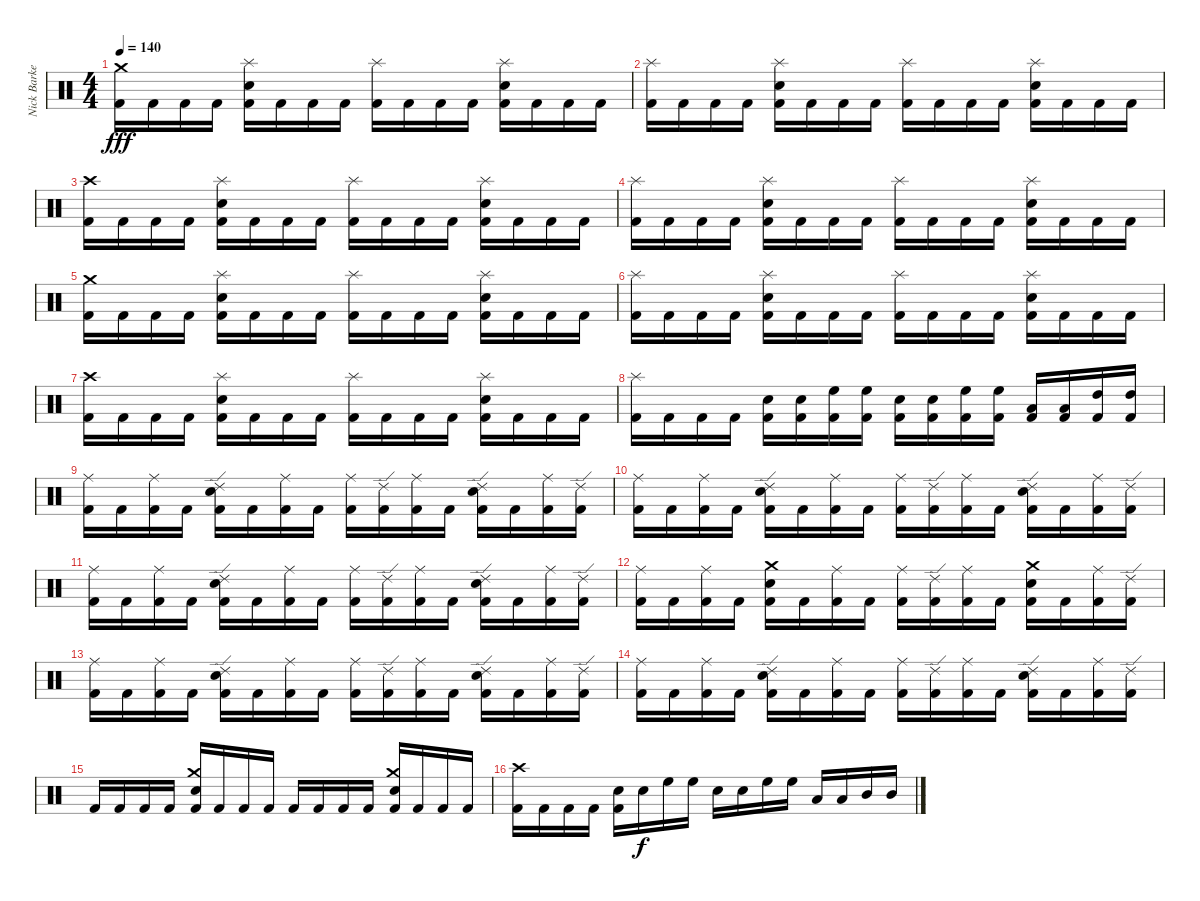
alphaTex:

\track ("Nick Barker - Drums - Percussion" "Nick Barke") {instrument percussion}
\staff {score}
\articulation defaults
\ts (4 4)
\tempo 140
\clef neutral
\ks c
("Kick (hit) 2" "Crash medium (hit)").16{dy fff} "Kick (hit) 2".16 "Kick (hit) 2".16 "Kick (hit) 2".16 ("Kick (hit) 2" "Snare (hit) 2" "Splash (hit)").16 "Kick (hit) 2".16 "Kick (hit) 2".16 "Kick (hit) 2".16 ("Kick (hit) 2" "Splash (hit)").16 "Kick (hit) 2".16 "Kick (hit) 2".16 "Kick (hit) 2".16 ("Kick (hit) 2" "Snare (hit) 2" "Splash (hit)").16 "Kick (hit) 2".16 "Kick (hit) 2".16 "Kick (hit) 2".16 |
("Kick (hit) 2" "Splash (hit)").16 "Kick (hit) 2".16 "Kick (hit) 2".16 "Kick (hit) 2".16 ("Kick (hit) 2" "Snare (hit) 2" "Splash (hit)").16 "Kick (hit) 2".16 "Kick (hit) 2".16 "Kick (hit) 2".16 ("Kick (hit) 2" "Splash (hit)").16 "Kick (hit) 2".16 "Kick (hit) 2".16 "Kick (hit) 2".16 ("Kick (hit) 2" "Snare (hit) 2" "Splash (hit)").16 "Kick (hit) 2".16 "Kick (hit) 2".16 "Kick (hit) 2".16 |
("Kick (hit) 2" "Crash high (hit)").16 "Kick (hit) 2".16 "Kick (hit) 2".16 "Kick (hit) 2".16 ("Kick (hit) 2" "Snare (hit) 2" "Splash (hit)").16 "Kick (hit) 2".16 "Kick (hit) 2".16 "Kick (hit) 2".16 ("Kick (hit) 2" "Splash (hit)").16 "Kick (hit) 2".16 "Kick (hit) 2".16 "Kick (hit) 2".16 ("Kick (hit) 2" "Snare (hit) 2" "Splash (hit)").16 "Kick (hit) 2".16 "Kick (hit) 2".16 "Kick (hit) 2".16 |
("Kick (hit) 2" "Splash (hit)").16 "Kick (hit) 2".16 "Kick (hit) 2".16 "Kick (hit) 2".16 ("Kick (hit) 2" "Snare (hit) 2" "Splash (hit)").16 "Kick (hit) 2".16 "Kick (hit) 2".16 "Kick (hit) 2".16 ("Kick (hit) 2" "Splash (hit)").16 "Kick (hit) 2".16 "Kick (hit) 2".16 "Kick (hit) 2".16 ("Kick (hit) 2" "Snare (hit) 2" "Splash (hit)").16 "Kick (hit) 2".16 "Kick (hit) 2".16 "Kick (hit) 2".16 |
("Kick (hit) 2" "Crash medium (hit)").16 "Kick (hit) 2".16 "Kick (hit) 2".16 "Kick (hit) 2".16 ("Kick (hit) 2" "Snare (hit) 2" "Splash (hit)").16 "Kick (hit) 2".16 "Kick (hit) 2".16 "Kick (hit) 2".16 ("Kick (hit) 2" "Splash (hit)").16 "Kick (hit) 2".16 "Kick (hit) 2".16 "Kick (hit) 2".16 ("Kick (hit) 2" "Snare (hit) 2" "Splash (hit)").16 "Kick (hit) 2".16 "Kick (hit) 2".16 "Kick (hit) 2".16 |
("Kick (hit) 2" "Splash (hit)").16 "Kick (hit) 2".16 "Kick (hit) 2".16 "Kick (hit) 2".16 ("Kick (hit) 2" "Snare (hit) 2" "Splash (hit)").16 "Kick (hit) 2".16 "Kick (hit) 2".16 "Kick (hit) 2".16 ("Kick (hit) 2" "Splash (hit)").16 "Kick (hit) 2".16 "Kick (hit) 2".16 "Kick (hit) 2".16 ("Kick (hit) 2" "Snare (hit) 2" "Splash (hit)").16 "Kick (hit) 2".16 "Kick (hit) 2".16 "Kick (hit) 2".16 |
("Kick (hit) 2" "Crash high (hit)").16 "Kick (hit) 2".16 "Kick (hit) 2".16 "Kick (hit) 2".16 ("Kick (hit) 2" "Snare (hit) 2" "Splash (hit)").16 "Kick (hit) 2".16 "Kick (hit) 2".16 "Kick (hit) 2".16 ("Kick (hit) 2" "Splash (hit)").16 "Kick (hit) 2".16 "Kick (hit) 2".16 "Kick (hit) 2".16 ("Kick (hit) 2" "Snare (hit) 2" "Splash (hit)").16 "Kick (hit) 2".16 "Kick (hit) 2".16 "Kick (hit) 2".16 |
("Kick (hit) 2" "Splash (hit)").16 "Kick (hit) 2".16 "Kick (hit) 2".16 "Kick (hit) 2".16 ("Kick (hit) 2" "Snare (hit) 2").16 ("Kick (hit) 2" "Snare (hit) 2").16 ("Kick (hit) 2" "High Floor Tom (hit)").16 ("Kick (hit) 2" "High Floor Tom (hit)").16 ("Kick (hit) 2" "Snare (hit) 2").16 ("Kick (hit) 2" "Snare (hit) 2").16 ("Kick (hit) 2" "High Floor Tom (hit)").16 ("Kick (hit) 2" "High Floor Tom (hit)").16 ("Kick (hit) 2" "Low Tom (hit)").16 ("Kick (hit) 2" "Low Tom (hit)").16 ("Kick (hit) 2" "High Tom (hit)").16 ("Kick (hit) 2" "High Tom (hit)").16 |
("Kick (hit) 2" "Ride (middle)").16 "Kick (hit) 2".16 ("Kick (hit) 2" "Ride (middle)").16 "Kick (hit) 2".16 ("Kick (hit) 2" "Snare (hit) 2" "Ride (edge) 2").16 "Kick (hit) 2".16 ("Kick (hit) 2" "Ride (middle)").16 "Kick (hit) 2".16 ("Kick (hit) 2" "Ride (middle)").16 ("Kick (hit) 2" "Ride (edge) 2").16 ("Kick (hit) 2" "Ride (middle)").16 "Kick (hit) 2".16 ("Kick (hit) 2" "Snare (hit) 2" "Ride (edge) 2").16 "Kick (hit) 2".16 ("Kick (hit) 2" "Ride (middle)").16 ("Kick (hit) 2" "Ride (edge) 2").16 |
("Kick (hit) 2" "Ride (middle)").16 "Kick (hit) 2".16 ("Kick (hit) 2" "Ride (middle)").16 "Kick (hit) 2".16 ("Kick (hit) 2" "Snare (hit) 2" "Ride (edge) 2").16 "Kick (hit) 2".16 ("Kick (hit) 2" "Ride (middle)").16 "Kick (hit) 2".16 ("Kick (hit) 2" "Ride (middle)").16 ("Kick (hit) 2" "Ride (edge) 2").16 ("Kick (hit) 2" "Ride (middle)").16 "Kick (hit) 2".16 ("Kick (hit) 2" "Snare (hit) 2" "Ride (edge) 2").16 "Kick (hit) 2".16 ("Kick (hit) 2" "Ride (middle)").16 ("Kick (hit) 2" "Ride (edge) 2").16 |
("Kick (hit) 2" "Ride (middle)").16 "Kick (hit) 2".16 ("Kick (hit) 2" "Ride (middle)").16 "Kick (hit) 2".16 ("Kick (hit) 2" "Snare (hit) 2" "Ride (edge) 2").16 "Kick (hit) 2".16 ("Kick (hit) 2" "Ride (middle)").16 "Kick (hit) 2".16 ("Kick (hit) 2" "Ride (middle)").16 ("Kick (hit) 2" "Ride (edge) 2").16 ("Kick (hit) 2" "Ride (middle)").16 "Kick (hit) 2".16 ("Kick (hit) 2" "Snare (hit) 2" "Ride (edge) 2").16 "Kick (hit) 2".16 ("Kick (hit) 2" "Ride (middle)").16 ("Kick (hit) 2" "Ride (edge) 2").16 |
("Kick (hit) 2" "Ride (middle)").16 "Kick (hit) 2".16 ("Kick (hit) 2" "Ride (middle)").16 "Kick (hit) 2".16 ("Kick (hit) 2" "Snare (hit) 2" "Crash medium (hit)").16 "Kick (hit) 2".16 ("Kick (hit) 2" "Ride (middle)").16 "Kick (hit) 2".16 ("Kick (hit) 2" "Ride (middle)").16 ("Kick (hit) 2" "Ride (edge) 2").16 ("Kick (hit) 2" "Ride (middle)").16 "Kick (hit) 2".16 ("Kick (hit) 2" "Snare (hit) 2" "Crash medium (hit)").16 "Kick (hit) 2".16 ("Kick (hit) 2" "Ride (middle)").16 ("Kick (hit) 2" "Ride (edge) 2").16 |
("Kick (hit) 2" "Ride (middle)").16 "Kick (hit) 2".16 ("Kick (hit) 2" "Ride (middle)").16 "Kick (hit) 2".16 ("Kick (hit) 2" "Snare (hit) 2" "Ride (edge) 2").16 "Kick (hit) 2".16 ("Kick (hit) 2" "Ride (middle)").16 "Kick (hit) 2".16 ("Kick (hit) 2" "Ride (middle)").16 ("Kick (hit) 2" "Ride (edge) 2").16 ("Kick (hit) 2" "Ride (middle)").16 "Kick (hit) 2".16 ("Kick (hit) 2" "Snare (hit) 2" "Ride (edge) 2").16 "Kick (hit) 2".16 ("Kick (hit) 2" "Ride (middle)").16 ("Kick (hit) 2" "Ride (edge) 2").16 |
("Kick (hit) 2" "Ride (middle)").16 "Kick (hit) 2".16 ("Kick (hit) 2" "Ride (middle)").16 "Kick (hit) 2".16 ("Kick (hit) 2" "Snare (hit) 2" "Ride (edge) 2").16 "Kick (hit) 2".16 ("Kick (hit) 2" "Ride (middle)").16 "Kick (hit) 2".16 ("Kick (hit) 2" "Ride (middle)").16 ("Kick (hit) 2" "Ride (edge) 2").16 ("Kick (hit) 2" "Ride (middle)").16 "Kick (hit) 2".16 ("Kick (hit) 2" "Snare (hit) 2" "Ride (edge) 2").16 "Kick (hit) 2".16 ("Kick (hit) 2" "Ride (middle)").16 ("Kick (hit) 2" "Ride (edge) 2").16 |
"Kick (hit) 2".16 "Kick (hit) 2".16 "Kick (hit) 2".16 "Kick (hit) 2".16 ("Kick (hit) 2" "Snare (hit) 2" "Crash medium (hit)").16 "Kick (hit) 2".16 "Kick (hit) 2".16 "Kick (hit) 2".16 "Kick (hit) 2".16 "Kick (hit) 2".16 "Kick (hit) 2".16 "Kick (hit) 2".16 ("Kick (hit) 2" "Snare (hit) 2" "Crash medium (hit)").16 "Kick (hit) 2".16 "Kick (hit) 2".16 "Kick (hit) 2".16 |
("Kick (hit) 2" "Crash high (hit)").16 "Kick (hit) 2".16 "Kick (hit) 2".16 "Kick (hit) 2".16 ("Kick (hit) 2" "Snare (hit) 2").16 "Snare (hit) 2".16{dy f} "High Floor Tom (hit)".16 "High Floor Tom (hit)".16 "Snare (hit) 2".16 "Snare (hit) 2".16 "High Floor Tom (hit)".16 "High Floor Tom (hit)".16 "Low Tom (hit)".16 "Low Tom (hit)".16 "Mid Tom (hit)".16 "Mid Tom (hit)".16
